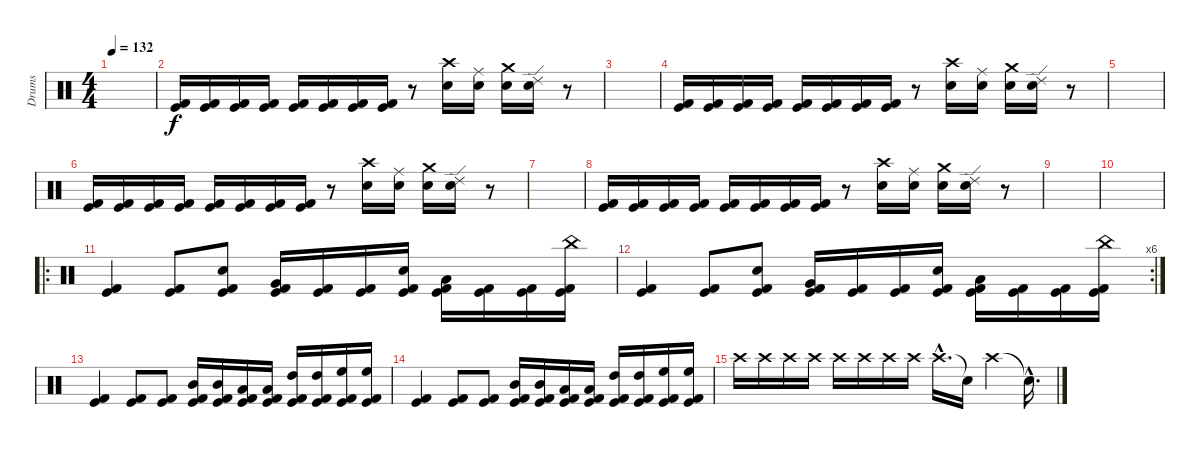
\track ("Drums" "Drums") {instrument percussion}
\staff {score}
\articulation defaults
\ts (4 4)
\tempo 132
\clef neutral
\ks c
|
("Kick (hit)" "Kick (hit) 2").16 ("Kick (hit)" "Kick (hit) 2").16 ("Kick (hit)" "Kick (hit) 2").16 ("Kick (hit)" "Kick (hit) 2").16 ("Kick (hit)" "Kick (hit) 2").16 ("Kick (hit)" "Kick (hit) 2").16 ("Kick (hit)" "Kick (hit) 2").16 ("Kick (hit)" "Kick (hit) 2").16 r.8 ("Snare (hit) 2" "Crash high (hit)").16 ("Ride (middle)" "Snare (hit) 2").16 ("Snare (hit) 2" "Crash medium (hit)").16 ("Ride (edge) 2" "Snare (hit) 2").16 r.8 |
|
("Kick (hit)" "Kick (hit) 2").16 ("Kick (hit)" "Kick (hit) 2").16 ("Kick (hit)" "Kick (hit) 2").16 ("Kick (hit)" "Kick (hit) 2").16 ("Kick (hit)" "Kick (hit) 2").16 ("Kick (hit)" "Kick (hit) 2").16 ("Kick (hit)" "Kick (hit) 2").16 ("Kick (hit)" "Kick (hit) 2").16 r.8 ("Snare (hit) 2" "Crash high (hit)").16 ("Ride (middle)" "Snare (hit) 2").16 ("Snare (hit) 2" "Crash medium (hit)").16 ("Ride (edge) 2" "Snare (hit) 2").16 r.8 |
|
("Kick (hit)" "Kick (hit) 2").16 ("Kick (hit)" "Kick (hit) 2").16 ("Kick (hit)" "Kick (hit) 2").16 ("Kick (hit)" "Kick (hit) 2").16 ("Kick (hit)" "Kick (hit) 2").16 ("Kick (hit)" "Kick (hit) 2").16 ("Kick (hit)" "Kick (hit) 2").16 ("Kick (hit)" "Kick (hit) 2").16 r.8 ("Snare (hit) 2" "Crash high (hit)").16 ("Ride (middle)" "Snare (hit) 2").16 ("Snare (hit) 2" "Crash medium (hit)").16 ("Ride (edge) 2" "Snare (hit) 2").16 r.8 |
|
("Kick (hit)" "Kick (hit) 2").16 ("Kick (hit)" "Kick (hit) 2").16 ("Kick (hit)" "Kick (hit) 2").16 ("Kick (hit)" "Kick (hit) 2").16 ("Kick (hit)" "Kick (hit) 2").16 ("Kick (hit)" "Kick (hit) 2").16 ("Kick (hit)" "Kick (hit) 2").16 ("Kick (hit)" "Kick (hit) 2").16 r.8 ("Snare (hit) 2" "Crash high (hit)").16 ("Ride (middle)" "Snare (hit) 2").16 ("Snare (hit) 2" "Crash medium (hit)").16 ("Ride (edge) 2" "Snare (hit) 2").16 r.8 |
|
|
\ro
("Kick (hit)" "Kick (hit) 2").4 ("Kick (hit)" "Kick (hit) 2").8 ("Kick (hit)" "Kick (hit) 2" "Electric Snare (hit)").8 ("Kick (hit)" "Kick (hit) 2" "Very Low Tom (hit)").16 ("Kick (hit)" "Kick (hit) 2").16 ("Kick (hit)" "Kick (hit) 2").16 ("Kick (hit)" "Kick (hit) 2" "Electric Snare (hit)").16 ("Kick (hit)" "Kick (hit) 2" "Low Floor Tom (hit)").16 ("Kick (hit)" "Kick (hit) 2").16 ("Kick (hit)" "Kick (hit) 2").16 ("Kick (hit)" "Kick (hit) 2" "China (hit)").16 |
\rc 6
("Kick (hit)" "Kick (hit) 2").4 ("Kick (hit)" "Kick (hit) 2").8 ("Kick (hit)" "Kick (hit) 2" "Electric Snare (hit)").8 ("Kick (hit)" "Kick (hit) 2" "Very Low Tom (hit)").16 ("Kick (hit)" "Kick (hit) 2").16 ("Kick (hit)" "Kick (hit) 2").16 ("Kick (hit)" "Kick (hit) 2" "Electric Snare (hit)").16 ("Kick (hit)" "Kick (hit) 2" "Low Floor Tom (hit)").16 ("Kick (hit)" "Kick (hit) 2").16 ("Kick (hit)" "Kick (hit) 2").16 ("Kick (hit)" "Kick (hit) 2" "China (hit)").16 |
("Kick (hit)" "Kick (hit) 2").4 ("Kick (hit)" "Kick (hit) 2").8 ("Kick (hit)" "Kick (hit) 2").8 ("Kick (hit)" "Kick (hit) 2" "Mid Tom (hit)").16 ("Kick (hit)" "Kick (hit) 2" "Mid Tom (hit)").16 ("Kick (hit)" "Kick (hit) 2" "Low Tom (hit)").16 ("Kick (hit)" "Kick (hit) 2" "Low Tom (hit)").16 ("Kick (hit)" "Kick (hit) 2" "High Tom (hit)").16 ("Kick (hit)" "Kick (hit) 2" "High Tom (hit)").16 ("Kick (hit)" "Kick (hit) 2" "High Floor Tom (hit)").16 ("Kick (hit)" "Kick (hit) 2" "High Floor Tom (hit)").16 |
("Kick (hit)" "Kick (hit) 2").4 ("Kick (hit)" "Kick (hit) 2").8 ("Kick (hit)" "Kick (hit) 2").8 ("Kick (hit)" "Kick (hit) 2" "Mid Tom (hit)").16 ("Kick (hit)" "Kick (hit) 2" "Mid Tom (hit)").16 ("Kick (hit)" "Kick (hit) 2" "Low Tom (hit)").16 ("Kick (hit)" "Kick (hit) 2" "Low Tom (hit)").16 ("Kick (hit)" "Kick (hit) 2" "High Tom (hit)").16 ("Kick (hit)" "Kick (hit) 2" "High Tom (hit)").16 ("Kick (hit)" "Kick (hit) 2" "High Floor Tom (hit)").16 ("Kick (hit)" "Kick (hit) 2" "High Floor Tom (hit)").16 |
"Crash high (hit)".16 "Crash high (hit)".16 "Crash high (hit)".16 "Crash high (hit)".16 "Crash high (hit)".16 "Crash high (hit)".16 "Crash high (hit)".16 "Crash high (hit)".16 "Crash high (hit)"{hac}.16{d} "Snare (hit)"{t}.16 "Crash high (hit)".4 "Snare (hit)"{hac t}.16{d}
